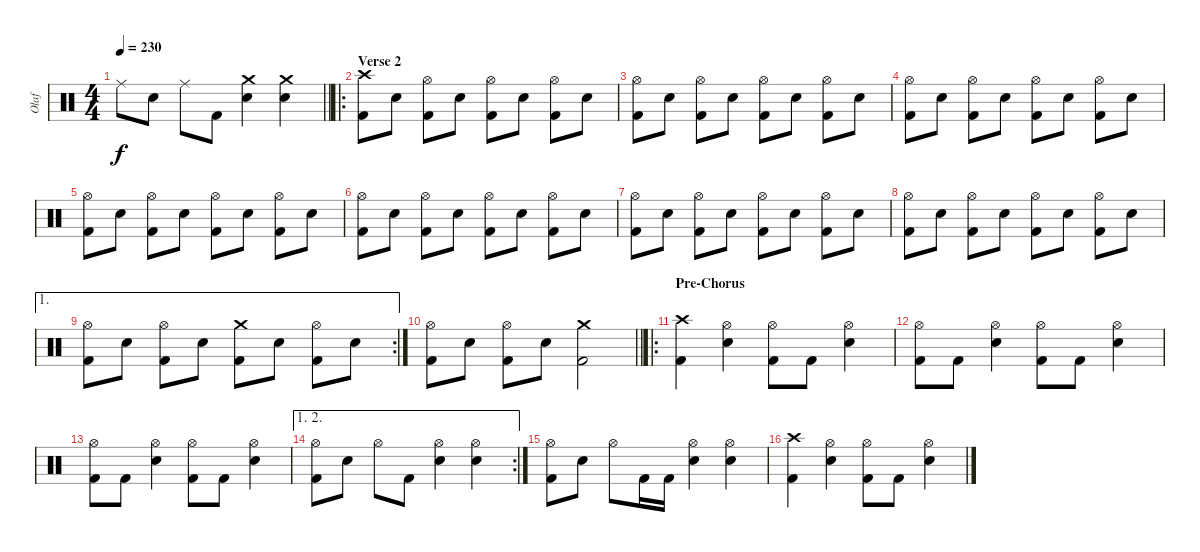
\track ("Olaf" "Olaf") {instrument percussion}
\staff {score}
\articulation defaults
\ts (4 4)
\tempo 230
\clef neutral
\barLineRight lightlight
\ks c "Ride (middle)".8{dy f} "Electric Snare (hit)".8 "Ride (middle)".8 "Kick (hit) 2".8
("Crash medium (hit)" "Electric Snare (hit)").4 ("Crash medium (hit)" "Electric Snare (hit)").4 |
\ro
\section ("" "Verse 2")
("Crash high (hit)" "Kick (hit) 2").8 "Electric Snare (hit)".8 ("Hi-Hat (open)" "Kick (hit) 2").8 "Electric Snare (hit)".8 ("Hi-Hat (open)" "Kick (hit) 2").8 "Electric Snare (hit)".8 ("Hi-Hat (open)" "Kick (hit) 2").8 "Electric Snare (hit)".8 |
("Hi-Hat (open)" "Kick (hit) 2").8 "Electric Snare (hit)".8 ("Hi-Hat (open)" "Kick (hit) 2").8 "Electric Snare (hit)".8 ("Hi-Hat (open)" "Kick (hit) 2").8 "Electric Snare (hit)".8 ("Hi-Hat (open)" "Kick (hit) 2").8 "Electric Snare (hit)".8 |
("Hi-Hat (open)" "Kick (hit) 2").8 "Electric Snare (hit)".8 ("Hi-Hat (open)" "Kick (hit) 2").8 "Electric Snare (hit)".8 ("Hi-Hat (open)" "Kick (hit) 2").8 "Electric Snare (hit)".8 ("Hi-Hat (open)" "Kick (hit) 2").8 "Electric Snare (hit)".8 |
("Hi-Hat (open)" "Kick (hit) 2").8 "Electric Snare (hit)".8 ("Hi-Hat (open)" "Kick (hit) 2").8 "Electric Snare (hit)".8 ("Hi-Hat (open)" "Kick (hit) 2").8 "Electric Snare (hit)".8 ("Hi-Hat (open)" "Kick (hit) 2").8 "Electric Snare (hit)".8 |
("Hi-Hat (open)" "Kick (hit) 2").8 "Electric Snare (hit)".8 ("Hi-Hat (open)" "Kick (hit) 2").8 "Electric Snare (hit)".8 ("Hi-Hat (open)" "Kick (hit) 2").8 "Electric Snare (hit)".8 ("Hi-Hat (open)" "Kick (hit) 2").8 "Electric Snare (hit)".8 |
("Hi-Hat (open)" "Kick (hit) 2").8 "Electric Snare (hit)".8 ("Hi-Hat (open)" "Kick (hit) 2").8 "Electric Snare (hit)".8 ("Hi-Hat (open)" "Kick (hit) 2").8 "Electric Snare (hit)".8 ("Hi-Hat (open)" "Kick (hit) 2").8 "Electric Snare (hit)".8 |
("Hi-Hat (open)" "Kick (hit) 2").8 "Electric Snare (hit)".8 ("Hi-Hat (open)" "Kick (hit) 2").8 "Electric Snare (hit)".8 ("Hi-Hat (open)" "Kick (hit) 2").8 "Electric Snare (hit)".8 ("Hi-Hat (open)" "Kick (hit) 2").8 "Electric Snare (hit)".8 |
\ae 1
\rc 2
("Hi-Hat (open)" "Kick (hit) 2").8 "Electric Snare (hit)".8 ("Hi-Hat (open)" "Kick (hit) 2").8 "Electric Snare (hit)".8 ("Crash medium (hit)" "Kick (hit) 2").8 "Electric Snare (hit)".8 ("Hi-Hat (open)" "Kick (hit) 2").8 "Electric Snare (hit)".8 |
\barLineRight lightlight
("Hi-Hat (open)" "Kick (hit) 2").8 "Electric Snare (hit)".8 ("Hi-Hat (open)" "Kick (hit) 2").8 "Electric Snare (hit)".8 ("Crash medium (hit)" "Kick (hit) 2").2 |
\ro
\section ("" "Pre-Chorus")
("Crash high (hit)" "Kick (hit) 2").4 ("Hi-Hat (open)" "Electric Snare (hit)").4 ("Hi-Hat (open)" "Kick (hit) 2").8 "Kick (hit) 2".8 ("Hi-Hat (open)" "Electric Snare (hit)").4 |
("Hi-Hat (open)" "Kick (hit) 2").8 "Kick (hit) 2".8 ("Hi-Hat (open)" "Electric Snare (hit)").4 ("Hi-Hat (open)" "Kick (hit) 2").8 "Kick (hit) 2".8 ("Hi-Hat (open)" "Electric Snare (hit)").4 |
("Hi-Hat (open)" "Kick (hit) 2").8 "Kick (hit) 2".8 ("Hi-Hat (open)" "Electric Snare (hit)").4 ("Hi-Hat (open)" "Kick (hit) 2").8 "Kick (hit) 2".8 ("Hi-Hat (open)" "Electric Snare (hit)").4 |
\ae (1 2)
\rc 2
("Hi-Hat (open)" "Kick (hit) 2").8 "Electric Snare (hit)".8 "Hi-Hat (open)".8 "Kick (hit) 2".8 ("Hi-Hat (open)" "Electric Snare (hit)").4 ("Hi-Hat (open)" "Electric Snare (hit)").4 |
("Hi-Hat (open)" "Kick (hit) 2").8 "Electric Snare (hit)".8 "Hi-Hat (open)".8 "Kick (hit) 2".16 "Kick (hit) 2".16 ("Hi-Hat (open)" "Electric Snare (hit)").4 ("Hi-Hat (open)" "Electric Snare (hit)").4 |
("Crash high (hit)" "Kick (hit) 2").4 ("Hi-Hat (open)" "Electric Snare (hit)").4 ("Hi-Hat (open)" "Kick (hit) 2").8 "Kick (hit) 2".8 ("Hi-Hat (open)" "Electric Snare (hit)").4
